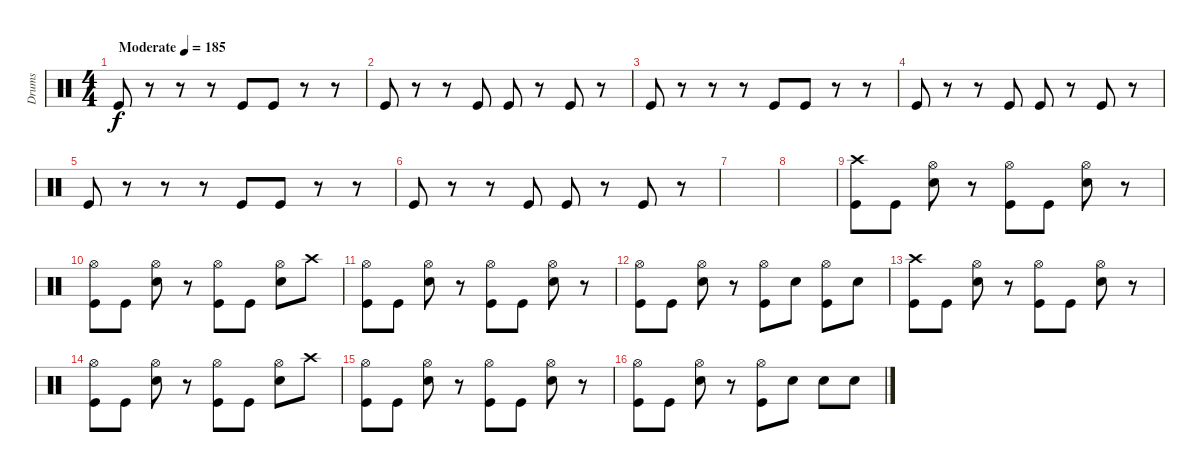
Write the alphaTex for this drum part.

\track ("Drums" "Drums") {instrument percussion}
\staff {score}
\articulation defaults
\ts (4 4)
\tempo (185 "Moderate")
\clef neutral
\ks c "Kick (hit)".8{dy f}
r.8 r.8 r.8 "Kick (hit)".8 "Kick (hit)".8 r.8 r.8 |
"Kick (hit)".8 r.8 r.8 "Kick (hit)".8 "Kick (hit)".8 r.8 "Kick (hit)".8 r.8 |
"Kick (hit)".8 r.8 r.8 r.8 "Kick (hit)".8 "Kick (hit)".8 r.8 r.8 |
"Kick (hit)".8 r.8 r.8 "Kick (hit)".8 "Kick (hit)".8 r.8 "Kick (hit)".8 r.8 |
"Kick (hit)".8 r.8 r.8 r.8 "Kick (hit)".8 "Kick (hit)".8 r.8 r.8 |
"Kick (hit)".8 r.8 r.8 "Kick (hit)".8 "Kick (hit)".8 r.8 "Kick (hit)".8 r.8 |
|
|
("Crash high (hit)" "Kick (hit)").8 "Kick (hit)".8 ("Hi-Hat (open)" "Electric Snare (hit)").8 r.8 ("Hi-Hat (open)" "Kick (hit)").8 "Kick (hit)".8 ("Hi-Hat (open)" "Electric Snare (hit)").8 r.8 |
("Hi-Hat (open)" "Kick (hit)").8 "Kick (hit)".8 ("Hi-Hat (open)" "Electric Snare (hit)").8 r.8 ("Hi-Hat (open)" "Kick (hit)").8 "Kick (hit)".8 ("Hi-Hat (open)" "Electric Snare (hit)").8 "Crash high (hit)".8 |
("Hi-Hat (open)" "Kick (hit)").8 "Kick (hit)".8 ("Hi-Hat (open)" "Electric Snare (hit)").8 r.8 ("Hi-Hat (open)" "Kick (hit)").8 "Kick (hit)".8 ("Hi-Hat (open)" "Electric Snare (hit)").8 r.8 |
("Hi-Hat (open)" "Kick (hit)").8 "Kick (hit)".8 ("Hi-Hat (open)" "Electric Snare (hit)").8 r.8 ("Hi-Hat (open)" "Kick (hit)").8 "Electric Snare (hit)".8 ("Hi-Hat (open)" "Kick (hit)").8 "Electric Snare (hit)".8 |
("Crash high (hit)" "Kick (hit)").8 "Kick (hit)".8 ("Hi-Hat (open)" "Electric Snare (hit)").8 r.8 ("Hi-Hat (open)" "Kick (hit)").8 "Kick (hit)".8 ("Hi-Hat (open)" "Electric Snare (hit)").8 r.8 |
("Hi-Hat (open)" "Kick (hit)").8 "Kick (hit)".8 ("Hi-Hat (open)" "Electric Snare (hit)").8 r.8 ("Hi-Hat (open)" "Kick (hit)").8 "Kick (hit)".8 ("Hi-Hat (open)" "Electric Snare (hit)").8 "Crash high (hit)".8 |
("Hi-Hat (open)" "Kick (hit)").8 "Kick (hit)".8 ("Hi-Hat (open)" "Electric Snare (hit)").8 r.8 ("Hi-Hat (open)" "Kick (hit)").8 "Kick (hit)".8 ("Hi-Hat (open)" "Electric Snare (hit)").8 r.8 |
("Hi-Hat (open)" "Kick (hit)").8 "Kick (hit)".8 ("Hi-Hat (open)" "Electric Snare (hit)").8 r.8 ("Hi-Hat (open)" "Kick (hit)").8 "Electric Snare (hit)".8 "Electric Snare (hit)".8 "Electric Snare (hit)".8
